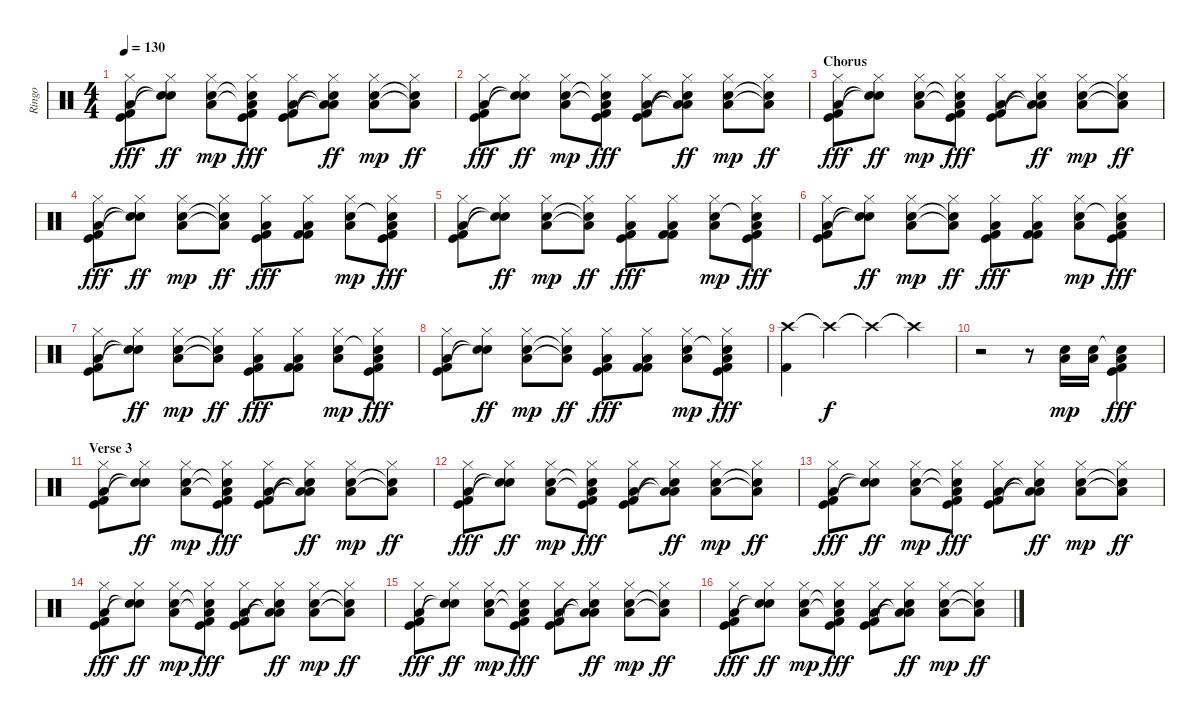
\track ("Ringo" "Ringo") {instrument percussion}
\staff {score}
\articulation defaults
\ts (4 4)
\tempo 130
\clef neutral
\ks c
("Hi-Hat (closed)" "Low Floor Tom (hit)" "Kick (hit) 2" "Kick (hit)").8{dy fff} ("Hi-Hat (closed)" "Snare (hit)"{t} "Snare (hit)"{t}).8{dy ff} ("Hi-Hat (closed)" "Low Floor Tom (hit)" "Snare (hit) 2").8{dy mp} ("Hi-Hat (closed)" "Low Floor Tom (hit)"{t} "Snare (hit)"{t} "Kick (hit) 2" "Kick (hit)").8{dy fff} ("Hi-Hat (closed)" "Low Floor Tom (hit)" "Kick (hit) 2" "Kick (hit)").8 ("Hi-Hat (closed)" "Low Floor Tom (hit)"{t} "Low Floor Tom (hit)"{t} "Snare (hit)"{t}).8{dy ff} ("Hi-Hat (closed)" "Low Floor Tom (hit)" "Snare (hit) 2").8{dy mp} ("Hi-Hat (closed)" "Low Floor Tom (hit)"{t} "Snare (hit) 2"{t}).8{dy ff} |
("Hi-Hat (closed)" "Low Floor Tom (hit)" "Kick (hit) 2" "Kick (hit)").8{dy fff} ("Hi-Hat (closed)" "Snare (hit)"{t} "Snare (hit)"{t}).8{dy ff} ("Hi-Hat (closed)" "Low Floor Tom (hit)" "Snare (hit) 2").8{dy mp} ("Hi-Hat (closed)" "Low Floor Tom (hit)"{t} "Snare (hit)"{t} "Kick (hit) 2" "Kick (hit)").8{dy fff} ("Hi-Hat (closed)" "Low Floor Tom (hit)" "Kick (hit) 2" "Kick (hit)").8 ("Hi-Hat (closed)" "Low Floor Tom (hit)"{t} "Low Floor Tom (hit)"{t} "Snare (hit)"{t}).8{dy ff} ("Hi-Hat (closed)" "Low Floor Tom (hit)" "Snare (hit) 2").8{dy mp} ("Hi-Hat (closed)" "Low Floor Tom (hit)"{t} "Snare (hit) 2"{t}).8{dy ff} |
\section ("" "Chorus")
("Hi-Hat (closed)" "Low Floor Tom (hit)" "Kick (hit) 2" "Kick (hit)").8{dy fff} ("Hi-Hat (closed)" "Snare (hit)"{t} "Snare (hit)"{t}).8{dy ff} ("Hi-Hat (closed)" "Low Floor Tom (hit)" "Snare (hit) 2").8{dy mp} ("Hi-Hat (closed)" "Low Floor Tom (hit)"{t} "Snare (hit)"{t} "Kick (hit) 2" "Kick (hit)").8{dy fff} ("Hi-Hat (closed)" "Low Floor Tom (hit)" "Kick (hit) 2" "Kick (hit)").8 ("Hi-Hat (closed)" "Low Floor Tom (hit)"{t} "Low Floor Tom (hit)"{t} "Snare (hit)"{t}).8{dy ff} ("Hi-Hat (closed)" "Low Floor Tom (hit)" "Snare (hit) 2").8{dy mp} ("Hi-Hat (closed)" "Low Floor Tom (hit)"{t} "Snare (hit) 2"{t}).8{dy ff} |
("Hi-Hat (closed)" "Low Floor Tom (hit)" "Kick (hit) 2" "Kick (hit)").8{dy fff} ("Hi-Hat (closed)" "Snare (hit)"{t} "Snare (hit)"{t}).8{dy ff} ("Hi-Hat (closed)" "Low Floor Tom (hit)" "Snare (hit) 2").8{dy mp} ("Hi-Hat (closed)" "Low Floor Tom (hit)"{t} "Snare (hit)"{t}).8{dy ff} ("Hi-Hat (closed)" "Low Floor Tom (hit)" "Kick (hit) 2" "Kick (hit)").8{dy fff} ("Hi-Hat (closed)" "Low Floor Tom (hit)" "Kick (hit) 2" "Kick (hit) 2").8 ("Hi-Hat (closed)" "Low Floor Tom (hit)" "Snare (hit) 2").8{dy mp} ("Hi-Hat (closed)" "Low Floor Tom (hit)" "Snare (hit) 2"{t} "Kick (hit) 2" "Kick (hit)").8{dy fff} |
("Hi-Hat (closed)" "Low Floor Tom (hit)" "Kick (hit) 2" "Kick (hit)").8 ("Hi-Hat (closed)" "Snare (hit)"{t} "Snare (hit)"{t}).8{dy ff} ("Hi-Hat (closed)" "Low Floor Tom (hit)" "Snare (hit) 2").8{dy mp} ("Hi-Hat (closed)" "Low Floor Tom (hit)"{t} "Snare (hit)"{t}).8{dy ff} ("Hi-Hat (closed)" "Low Floor Tom (hit)" "Kick (hit) 2" "Kick (hit)").8{dy fff} ("Hi-Hat (closed)" "Low Floor Tom (hit)" "Kick (hit) 2" "Kick (hit) 2").8 ("Hi-Hat (closed)" "Low Floor Tom (hit)" "Snare (hit) 2").8{dy mp} ("Hi-Hat (closed)" "Low Floor Tom (hit)" "Snare (hit) 2"{t} "Kick (hit) 2" "Kick (hit)").8{dy fff} |
("Hi-Hat (closed)" "Low Floor Tom (hit)" "Kick (hit) 2" "Kick (hit)").8 ("Hi-Hat (closed)" "Snare (hit)"{t} "Snare (hit)"{t}).8{dy ff} ("Hi-Hat (closed)" "Low Floor Tom (hit)" "Snare (hit) 2").8{dy mp} ("Hi-Hat (closed)" "Low Floor Tom (hit)"{t} "Snare (hit)"{t}).8{dy ff} ("Hi-Hat (closed)" "Low Floor Tom (hit)" "Kick (hit) 2" "Kick (hit)").8{dy fff} ("Hi-Hat (closed)" "Low Floor Tom (hit)" "Kick (hit) 2" "Kick (hit) 2").8 ("Hi-Hat (closed)" "Low Floor Tom (hit)" "Snare (hit) 2").8{dy mp} ("Hi-Hat (closed)" "Low Floor Tom (hit)" "Snare (hit) 2"{t} "Kick (hit) 2" "Kick (hit)").8{dy fff} |
("Hi-Hat (closed)" "Low Floor Tom (hit)" "Kick (hit) 2" "Kick (hit)").8 ("Hi-Hat (closed)" "Snare (hit)"{t} "Snare (hit)"{t}).8{dy ff} ("Hi-Hat (closed)" "Low Floor Tom (hit)" "Snare (hit) 2").8{dy mp} ("Hi-Hat (closed)" "Low Floor Tom (hit)"{t} "Snare (hit)"{t}).8{dy ff} ("Hi-Hat (closed)" "Low Floor Tom (hit)" "Kick (hit) 2" "Kick (hit)").8{dy fff} ("Hi-Hat (closed)" "Low Floor Tom (hit)" "Kick (hit) 2" "Kick (hit) 2").8 ("Hi-Hat (closed)" "Low Floor Tom (hit)" "Snare (hit) 2").8{dy mp} ("Hi-Hat (closed)" "Low Floor Tom (hit)" "Snare (hit) 2"{t} "Kick (hit) 2" "Kick (hit)").8{dy fff} |
("Hi-Hat (closed)" "Low Floor Tom (hit)" "Kick (hit) 2" "Kick (hit)").8 ("Hi-Hat (closed)" "Snare (hit)"{t} "Snare (hit)"{t}).8{dy ff} ("Hi-Hat (closed)" "Low Floor Tom (hit)" "Snare (hit) 2").8{dy mp} ("Hi-Hat (closed)" "Low Floor Tom (hit)"{t} "Snare (hit)"{t}).8{dy ff} ("Hi-Hat (closed)" "Low Floor Tom (hit)" "Kick (hit) 2" "Kick (hit)").8{dy fff} ("Hi-Hat (closed)" "Low Floor Tom (hit)" "Kick (hit) 2" "Kick (hit) 2").8 ("Hi-Hat (closed)" "Low Floor Tom (hit)" "Snare (hit) 2").8{dy mp} ("Hi-Hat (closed)" "Low Floor Tom (hit)" "Snare (hit) 2"{t} "Kick (hit) 2" "Kick (hit)").8{dy fff} |
("Crash high (hit)" "Kick (hit) 2").4 "Crash high (hit)"{t}.4{dy f} "Crash high (hit)"{t}.4 "Crash high (hit)"{t}.4 |
r.2{volume 16} r.8 ("Low Floor Tom (hit)" "Snare (hit) 2").16{dy mp} ("Low Floor Tom (hit)" "Snare (hit) 2").16 ("Low Floor Tom (hit)" "Snare (hit) 2"{t} "Kick (hit) 2" "Kick (hit)").4{dy fff} |
\section ("" "Verse 3")
("Hi-Hat (closed)" "Low Floor Tom (hit)" "Kick (hit) 2" "Kick (hit)").8 ("Hi-Hat (closed)" "Snare (hit)"{t} "Snare (hit)"{t}).8{dy ff} ("Hi-Hat (closed)" "Low Floor Tom (hit)" "Snare (hit) 2").8{dy mp} ("Hi-Hat (closed)" "Low Floor Tom (hit)"{t} "Snare (hit)"{t} "Kick (hit) 2" "Kick (hit)").8{dy fff} ("Hi-Hat (closed)" "Low Floor Tom (hit)" "Kick (hit) 2" "Kick (hit)").8 ("Hi-Hat (closed)" "Low Floor Tom (hit)"{t} "Low Floor Tom (hit)"{t} "Snare (hit)"{t}).8{dy ff} ("Hi-Hat (closed)" "Low Floor Tom (hit)" "Snare (hit) 2").8{dy mp} ("Hi-Hat (closed)" "Low Floor Tom (hit)"{t} "Snare (hit) 2"{t}).8{dy ff} |
("Hi-Hat (closed)" "Low Floor Tom (hit)" "Kick (hit) 2" "Kick (hit)").8{dy fff} ("Hi-Hat (closed)" "Snare (hit)"{t} "Snare (hit)"{t}).8{dy ff} ("Hi-Hat (closed)" "Low Floor Tom (hit)" "Snare (hit) 2").8{dy mp} ("Hi-Hat (closed)" "Low Floor Tom (hit)"{t} "Snare (hit)"{t} "Kick (hit) 2" "Kick (hit)").8{dy fff} ("Hi-Hat (closed)" "Low Floor Tom (hit)" "Kick (hit) 2" "Kick (hit)").8 ("Hi-Hat (closed)" "Low Floor Tom (hit)"{t} "Low Floor Tom (hit)"{t} "Snare (hit)"{t}).8{dy ff} ("Hi-Hat (closed)" "Low Floor Tom (hit)" "Snare (hit) 2").8{dy mp} ("Hi-Hat (closed)" "Low Floor Tom (hit)"{t} "Snare (hit) 2"{t}).8{dy ff} |
("Hi-Hat (closed)" "Low Floor Tom (hit)" "Kick (hit) 2" "Kick (hit)").8{dy fff} ("Hi-Hat (closed)" "Snare (hit)"{t} "Snare (hit)"{t}).8{dy ff} ("Hi-Hat (closed)" "Low Floor Tom (hit)" "Snare (hit) 2").8{dy mp} ("Hi-Hat (closed)" "Low Floor Tom (hit)"{t} "Snare (hit)"{t} "Kick (hit) 2" "Kick (hit)").8{dy fff} ("Hi-Hat (closed)" "Low Floor Tom (hit)" "Kick (hit) 2" "Kick (hit)").8 ("Hi-Hat (closed)" "Low Floor Tom (hit)"{t} "Low Floor Tom (hit)"{t} "Snare (hit)"{t}).8{dy ff} ("Hi-Hat (closed)" "Low Floor Tom (hit)" "Snare (hit) 2").8{dy mp} ("Hi-Hat (closed)" "Low Floor Tom (hit)"{t} "Snare (hit) 2"{t}).8{dy ff} |
("Hi-Hat (closed)" "Low Floor Tom (hit)" "Kick (hit) 2" "Kick (hit)").8{dy fff} ("Hi-Hat (closed)" "Snare (hit)"{t} "Snare (hit)"{t}).8{dy ff} ("Hi-Hat (closed)" "Low Floor Tom (hit)" "Snare (hit) 2").8{dy mp} ("Hi-Hat (closed)" "Low Floor Tom (hit)"{t} "Snare (hit)"{t} "Kick (hit) 2" "Kick (hit)").8{dy fff} ("Hi-Hat (closed)" "Low Floor Tom (hit)" "Kick (hit) 2" "Kick (hit)").8 ("Hi-Hat (closed)" "Low Floor Tom (hit)"{t} "Low Floor Tom (hit)"{t} "Snare (hit)"{t}).8{dy ff} ("Hi-Hat (closed)" "Low Floor Tom (hit)" "Snare (hit) 2").8{dy mp} ("Hi-Hat (closed)" "Low Floor Tom (hit)"{t} "Snare (hit) 2"{t}).8{dy ff} |
("Hi-Hat (closed)" "Low Floor Tom (hit)" "Kick (hit) 2" "Kick (hit)").8{dy fff} ("Hi-Hat (closed)" "Snare (hit)"{t} "Snare (hit)"{t}).8{dy ff} ("Hi-Hat (closed)" "Low Floor Tom (hit)" "Snare (hit) 2").8{dy mp} ("Hi-Hat (closed)" "Low Floor Tom (hit)"{t} "Snare (hit)"{t} "Kick (hit) 2" "Kick (hit)").8{dy fff} ("Hi-Hat (closed)" "Low Floor Tom (hit)" "Kick (hit) 2" "Kick (hit)").8 ("Hi-Hat (closed)" "Low Floor Tom (hit)"{t} "Low Floor Tom (hit)"{t} "Snare (hit)"{t}).8{dy ff} ("Hi-Hat (closed)" "Low Floor Tom (hit)" "Snare (hit) 2").8{dy mp} ("Hi-Hat (closed)" "Low Floor Tom (hit)"{t} "Snare (hit) 2"{t}).8{dy ff} |
("Hi-Hat (closed)" "Low Floor Tom (hit)" "Kick (hit) 2" "Kick (hit)").8{dy fff} ("Hi-Hat (closed)" "Snare (hit)"{t} "Snare (hit)"{t}).8{dy ff} ("Hi-Hat (closed)" "Low Floor Tom (hit)" "Snare (hit) 2").8{dy mp} ("Hi-Hat (closed)" "Low Floor Tom (hit)"{t} "Snare (hit)"{t} "Kick (hit) 2" "Kick (hit)").8{dy fff} ("Hi-Hat (closed)" "Low Floor Tom (hit)" "Kick (hit) 2" "Kick (hit)").8 ("Hi-Hat (closed)" "Low Floor Tom (hit)"{t} "Low Floor Tom (hit)"{t} "Snare (hit)"{t}).8{dy ff} ("Hi-Hat (closed)" "Low Floor Tom (hit)" "Snare (hit) 2").8{dy mp} ("Hi-Hat (closed)" "Low Floor Tom (hit)"{t} "Snare (hit) 2"{t}).8{dy ff}
